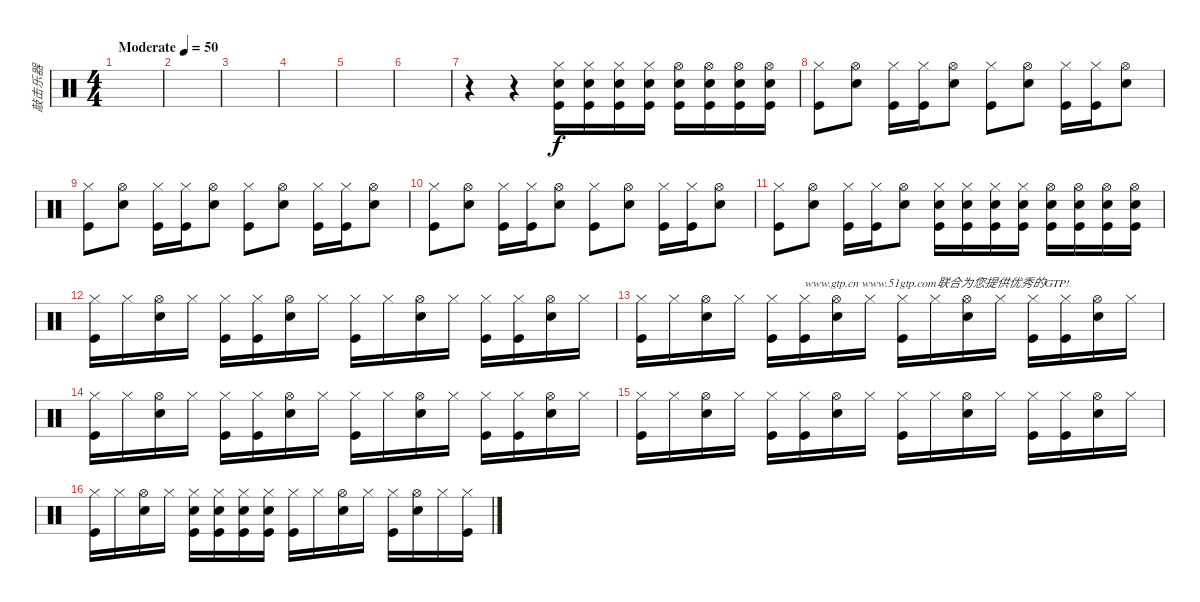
\track ("敲击乐器" "敲击乐器") {instrument percussion}
\staff {score}
\articulation defaults
\ts (4 4)
\tempo (50 "Moderate")
\clef neutral
\ks c
|
|
|
|
|
|
r.4 r.4 ("Hi-Hat (closed)" "Snare (hit) 2" "Kick (hit)").16{volume 7} ("Hi-Hat (closed)" "Snare (hit) 2" "Kick (hit)").16 ("Hi-Hat (closed)" "Snare (hit) 2" "Kick (hit)").16{volume 8} ("Hi-Hat (closed)" "Snare (hit) 2" "Kick (hit)").16 ("Hi-Hat (open)" "Snare (hit) 2" "Kick (hit)").16{volume 10} ("Hi-Hat (open)" "Snare (hit) 2" "Kick (hit)").16 ("Hi-Hat (open)" "Snare (hit) 2" "Kick (hit)").16 ("Hi-Hat (open)" "Snare (hit) 2" "Kick (hit)").16 |
("Hi-Hat (closed)" "Kick (hit)").8 ("Hi-Hat (open)" "Snare (hit) 2").8 ("Hi-Hat (closed)" "Kick (hit)").16 ("Hi-Hat (closed)" "Kick (hit)").16 ("Hi-Hat (open)" "Snare (hit) 2").8 ("Hi-Hat (closed)" "Kick (hit)").8 ("Hi-Hat (open)" "Snare (hit) 2").8 ("Hi-Hat (closed)" "Kick (hit)").16 ("Hi-Hat (closed)" "Kick (hit)").16 ("Hi-Hat (open)" "Snare (hit) 2").8 |
("Hi-Hat (closed)" "Kick (hit)").8 ("Hi-Hat (open)" "Snare (hit) 2").8 ("Hi-Hat (closed)" "Kick (hit)").16 ("Hi-Hat (closed)" "Kick (hit)").16 ("Hi-Hat (open)" "Snare (hit) 2").8 ("Hi-Hat (closed)" "Kick (hit)").8 ("Hi-Hat (open)" "Snare (hit) 2").8 ("Hi-Hat (closed)" "Kick (hit)").16 ("Hi-Hat (closed)" "Kick (hit)").16 ("Hi-Hat (open)" "Snare (hit) 2").8 |
("Hi-Hat (closed)" "Kick (hit)").8 ("Hi-Hat (open)" "Snare (hit) 2").8 ("Hi-Hat (closed)" "Kick (hit)").16 ("Hi-Hat (closed)" "Kick (hit)").16 ("Hi-Hat (open)" "Snare (hit) 2").8 ("Hi-Hat (closed)" "Kick (hit)").8 ("Hi-Hat (open)" "Snare (hit) 2").8 ("Hi-Hat (closed)" "Kick (hit)").16 ("Hi-Hat (closed)" "Kick (hit)").16 ("Hi-Hat (open)" "Snare (hit) 2").8 |
("Hi-Hat (closed)" "Kick (hit)").8 ("Hi-Hat (open)" "Snare (hit) 2").8 ("Hi-Hat (closed)" "Kick (hit)").16 ("Hi-Hat (closed)" "Kick (hit)").16 ("Hi-Hat (open)" "Snare (hit) 2").8 ("Hi-Hat (closed)" "Snare (hit) 2" "Kick (hit)").16 ("Hi-Hat (closed)" "Snare (hit) 2" "Kick (hit)").16 ("Hi-Hat (closed)" "Snare (hit) 2" "Kick (hit)").16 ("Hi-Hat (closed)" "Snare (hit) 2" "Kick (hit)").16 ("Hi-Hat (open)" "Snare (hit) 2" "Kick (hit)").16 ("Hi-Hat (open)" "Snare (hit) 2" "Kick (hit)").16 ("Hi-Hat (open)" "Snare (hit) 2" "Kick (hit)").16 ("Hi-Hat (open)" "Snare (hit) 2" "Kick (hit)").16 |
("Hi-Hat (closed)" "Kick (hit)").16 "Hi-Hat (closed)".16 ("Hi-Hat (open)" "Snare (hit) 2").16 "Hi-Hat (closed)".16 ("Hi-Hat (closed)" "Kick (hit)").16 ("Hi-Hat (closed)" "Kick (hit)").16 ("Hi-Hat (open)" "Snare (hit) 2").16 "Hi-Hat (closed)".16 ("Hi-Hat (closed)" "Kick (hit)").16 "Hi-Hat (closed)".16 ("Hi-Hat (open)" "Snare (hit) 2").16 "Hi-Hat (closed)".16 ("Hi-Hat (closed)" "Kick (hit)").16 ("Hi-Hat (closed)" "Kick (hit)").16 ("Hi-Hat (open)" "Snare (hit) 2").16 "Hi-Hat (closed)".16 |
("Hi-Hat (closed)" "Kick (hit)").16 "Hi-Hat (closed)".16 ("Hi-Hat (open)" "Snare (hit) 2").16 "Hi-Hat (closed)".16 ("Hi-Hat (closed)" "Kick (hit)").16 ("Hi-Hat (closed)" "Kick (hit)").16{txt "www.gtp.cn www.51gtp.com联合为您提供优秀的GTP!"} ("Hi-Hat (open)" "Snare (hit) 2").16 "Hi-Hat (closed)".16 ("Hi-Hat (closed)" "Kick (hit)").16 "Hi-Hat (closed)".16 ("Hi-Hat (open)" "Snare (hit) 2").16 "Hi-Hat (closed)".16 ("Hi-Hat (closed)" "Kick (hit)").16 ("Hi-Hat (closed)" "Kick (hit)").16 ("Hi-Hat (open)" "Snare (hit) 2").16 "Hi-Hat (closed)".16 |
("Hi-Hat (closed)" "Kick (hit)").16 "Hi-Hat (closed)".16 ("Hi-Hat (open)" "Snare (hit) 2").16 "Hi-Hat (closed)".16 ("Hi-Hat (closed)" "Kick (hit)").16 ("Hi-Hat (closed)" "Kick (hit)").16 ("Hi-Hat (open)" "Snare (hit) 2").16 "Hi-Hat (closed)".16 ("Hi-Hat (closed)" "Kick (hit)").16 "Hi-Hat (closed)".16 ("Hi-Hat (open)" "Snare (hit) 2").16 "Hi-Hat (closed)".16 ("Hi-Hat (closed)" "Kick (hit)").16 ("Hi-Hat (closed)" "Kick (hit)").16 ("Hi-Hat (open)" "Snare (hit) 2").16 "Hi-Hat (closed)".16 |
("Hi-Hat (closed)" "Kick (hit)").16 "Hi-Hat (closed)".16 ("Hi-Hat (open)" "Snare (hit) 2").16 "Hi-Hat (closed)".16 ("Hi-Hat (closed)" "Kick (hit)").16 ("Hi-Hat (closed)" "Kick (hit)").16 ("Hi-Hat (open)" "Snare (hit) 2").16 "Hi-Hat (closed)".16 ("Hi-Hat (closed)" "Kick (hit)").16 "Hi-Hat (closed)".16 ("Hi-Hat (open)" "Snare (hit) 2").16 "Hi-Hat (closed)".16 ("Hi-Hat (closed)" "Kick (hit)").16 ("Hi-Hat (closed)" "Kick (hit)").16 ("Hi-Hat (open)" "Snare (hit) 2").16 "Hi-Hat (closed)".16 |
("Hi-Hat (closed)" "Kick (hit)").16 "Hi-Hat (closed)".16 ("Hi-Hat (open)" "Snare (hit) 2").16 "Hi-Hat (closed)".16 ("Hi-Hat (closed)" "Snare (hit) 2" "Kick (hit)").16 ("Hi-Hat (closed)" "Snare (hit) 2" "Kick (hit)").16 ("Hi-Hat (closed)" "Snare (hit) 2" "Kick (hit)").16 ("Hi-Hat (closed)" "Snare (hit) 2" "Kick (hit)").16 ("Hi-Hat (closed)" "Kick (hit)").16 "Hi-Hat (closed)".16 ("Hi-Hat (open)" "Snare (hit) 2").16 "Hi-Hat (closed)".16 ("Hi-Hat (closed)" "Kick (hit)").16 ("Hi-Hat (open)" "Snare (hit) 2").16 "Hi-Hat (closed)".16 ("Hi-Hat (closed)" "Kick (hit)").16
